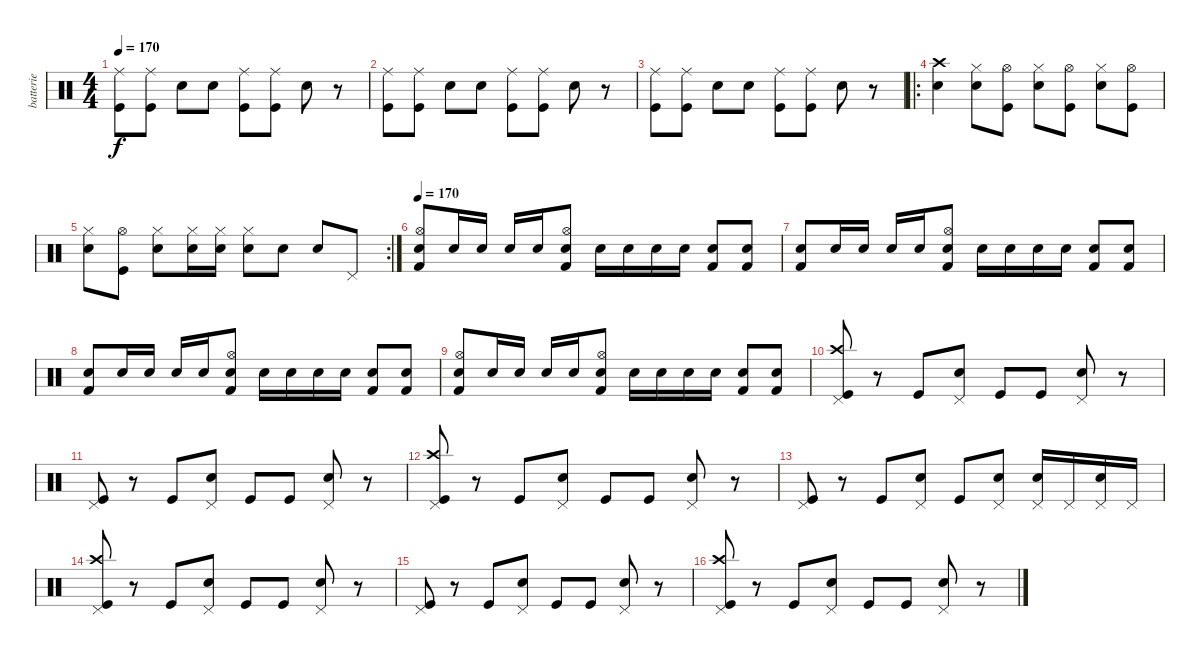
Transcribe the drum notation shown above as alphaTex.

\track ("batterie" "batterie") {instrument percussion}
\staff {score}
\articulation defaults
\ts (4 4)
\tempo 170
\clef neutral
\ks c
("Ride (middle)" "Kick (hit)").8{dy f} ("Ride (middle)" "Kick (hit)").8 "Electric Snare (hit)".8 "Electric Snare (hit)".8 ("Ride (middle)" "Kick (hit)").8 ("Ride (middle)" "Kick (hit)").8 "Electric Snare (hit)".8 r.8 |
("Ride (middle)" "Kick (hit)").8 ("Ride (middle)" "Kick (hit)").8 "Electric Snare (hit)".8 "Electric Snare (hit)".8 ("Ride (middle)" "Kick (hit)").8 ("Ride (middle)" "Kick (hit)").8 "Electric Snare (hit)".8 r.8 |
("Ride (middle)" "Kick (hit)").8 ("Ride (middle)" "Kick (hit)").8 "Electric Snare (hit)".8 "Electric Snare (hit)".8 ("Ride (middle)" "Kick (hit)").8 ("Ride (middle)" "Kick (hit)").8 "Electric Snare (hit)".8 r.8 |
\ro
("Crash high (hit)" "Electric Snare (hit)").4 ("Hi-Hat (closed)" "Electric Snare (hit)").8 ("Hi-Hat (open)" "Kick (hit)").8 ("Hi-Hat (closed)" "Electric Snare (hit)").8 ("Hi-Hat (open)" "Kick (hit)").8 ("Hi-Hat (closed)" "Electric Snare (hit)").8 ("Hi-Hat (open)" "Kick (hit)").8 |
\rc 2
("Hi-Hat (closed)" "Electric Snare (hit)").8 ("Hi-Hat (open)" "Kick (hit)").8 ("Hi-Hat (closed)" "Electric Snare (hit)").8 ("Hi-Hat (closed)" "Electric Snare (hit)").16 ("Hi-Hat (closed)" "Electric Snare (hit)").16 ("Hi-Hat (closed)" "Electric Snare (hit)").8 "Electric Snare (hit)".8 "Electric Snare (hit)".8 "Pedal Hi-Hat (hit)".8 |
\tempo 170
("Hi-Hat (open)" "Electric Snare (hit)" "Kick (hit) 2").8 "Electric Snare (hit)".16 "Electric Snare (hit)".16 "Electric Snare (hit)".16 "Electric Snare (hit)".16 ("Hi-Hat (open)" "Electric Snare (hit)" "Kick (hit) 2").8 "Electric Snare (hit)".16 "Electric Snare (hit)".16 "Electric Snare (hit)".16 "Electric Snare (hit)".16 ("Electric Snare (hit)" "Kick (hit) 2").8 ("Electric Snare (hit)" "Kick (hit) 2").8 |
("Electric Snare (hit)" "Kick (hit) 2").8 "Electric Snare (hit)".16 "Electric Snare (hit)".16 "Electric Snare (hit)".16 "Electric Snare (hit)".16 ("Hi-Hat (open)" "Electric Snare (hit)" "Kick (hit) 2").8 "Electric Snare (hit)".16 "Electric Snare (hit)".16 "Electric Snare (hit)".16 "Electric Snare (hit)".16 ("Electric Snare (hit)" "Kick (hit) 2").8 ("Electric Snare (hit)" "Kick (hit) 2").8 |
("Electric Snare (hit)" "Kick (hit) 2").8 "Electric Snare (hit)".16 "Electric Snare (hit)".16 "Electric Snare (hit)".16 "Electric Snare (hit)".16 ("Hi-Hat (open)" "Electric Snare (hit)" "Kick (hit) 2").8 "Electric Snare (hit)".16 "Electric Snare (hit)".16 "Electric Snare (hit)".16 "Electric Snare (hit)".16 ("Electric Snare (hit)" "Kick (hit) 2").8 ("Electric Snare (hit)" "Kick (hit) 2").8 |
("Hi-Hat (open)" "Electric Snare (hit)" "Kick (hit) 2").8 "Electric Snare (hit)".16 "Electric Snare (hit)".16 "Electric Snare (hit)".16 "Electric Snare (hit)".16 ("Hi-Hat (open)" "Electric Snare (hit)" "Kick (hit) 2").8 "Electric Snare (hit)".16 "Electric Snare (hit)".16 "Electric Snare (hit)".16 "Electric Snare (hit)".16 ("Electric Snare (hit)" "Kick (hit) 2").8 ("Electric Snare (hit)" "Kick (hit) 2").8 |
("Crash high (hit)" "Pedal Hi-Hat (hit)" "Kick (hit)").8 r.8 "Kick (hit)".8 ("Pedal Hi-Hat (hit)" "Electric Snare (hit)").8 "Kick (hit)".8 "Kick (hit)".8 ("Pedal Hi-Hat (hit)" "Electric Snare (hit)").8 r.8 |
("Pedal Hi-Hat (hit)" "Kick (hit)").8 r.8 "Kick (hit)".8 ("Pedal Hi-Hat (hit)" "Electric Snare (hit)").8 "Kick (hit)".8 "Kick (hit)".8 ("Pedal Hi-Hat (hit)" "Electric Snare (hit)").8 r.8 |
("Crash high (hit)" "Pedal Hi-Hat (hit)" "Kick (hit)").8 r.8 "Kick (hit)".8 ("Pedal Hi-Hat (hit)" "Electric Snare (hit)").8 "Kick (hit)".8 "Kick (hit)".8 ("Pedal Hi-Hat (hit)" "Electric Snare (hit)").8 r.8 |
("Pedal Hi-Hat (hit)" "Kick (hit)").8 r.8 "Kick (hit)".8 ("Pedal Hi-Hat (hit)" "Electric Snare (hit)").8 "Kick (hit)".8 ("Pedal Hi-Hat (hit)" "Electric Snare (hit)").8 ("Pedal Hi-Hat (hit)" "Electric Snare (hit)").16 "Pedal Hi-Hat (hit)".16 ("Pedal Hi-Hat (hit)" "Electric Snare (hit)").16 "Pedal Hi-Hat (hit)".16 |
("Crash high (hit)" "Pedal Hi-Hat (hit)" "Kick (hit)").8 r.8 "Kick (hit)".8 ("Pedal Hi-Hat (hit)" "Electric Snare (hit)").8 "Kick (hit)".8 "Kick (hit)".8 ("Pedal Hi-Hat (hit)" "Electric Snare (hit)").8 r.8 |
("Pedal Hi-Hat (hit)" "Kick (hit)").8 r.8 "Kick (hit)".8 ("Pedal Hi-Hat (hit)" "Electric Snare (hit)").8 "Kick (hit)".8 "Kick (hit)".8 ("Pedal Hi-Hat (hit)" "Electric Snare (hit)").8 r.8 |
("Crash high (hit)" "Pedal Hi-Hat (hit)" "Kick (hit)").8 r.8 "Kick (hit)".8 ("Pedal Hi-Hat (hit)" "Electric Snare (hit)").8 "Kick (hit)".8 "Kick (hit)".8 ("Pedal Hi-Hat (hit)" "Electric Snare (hit)").8 r.8
